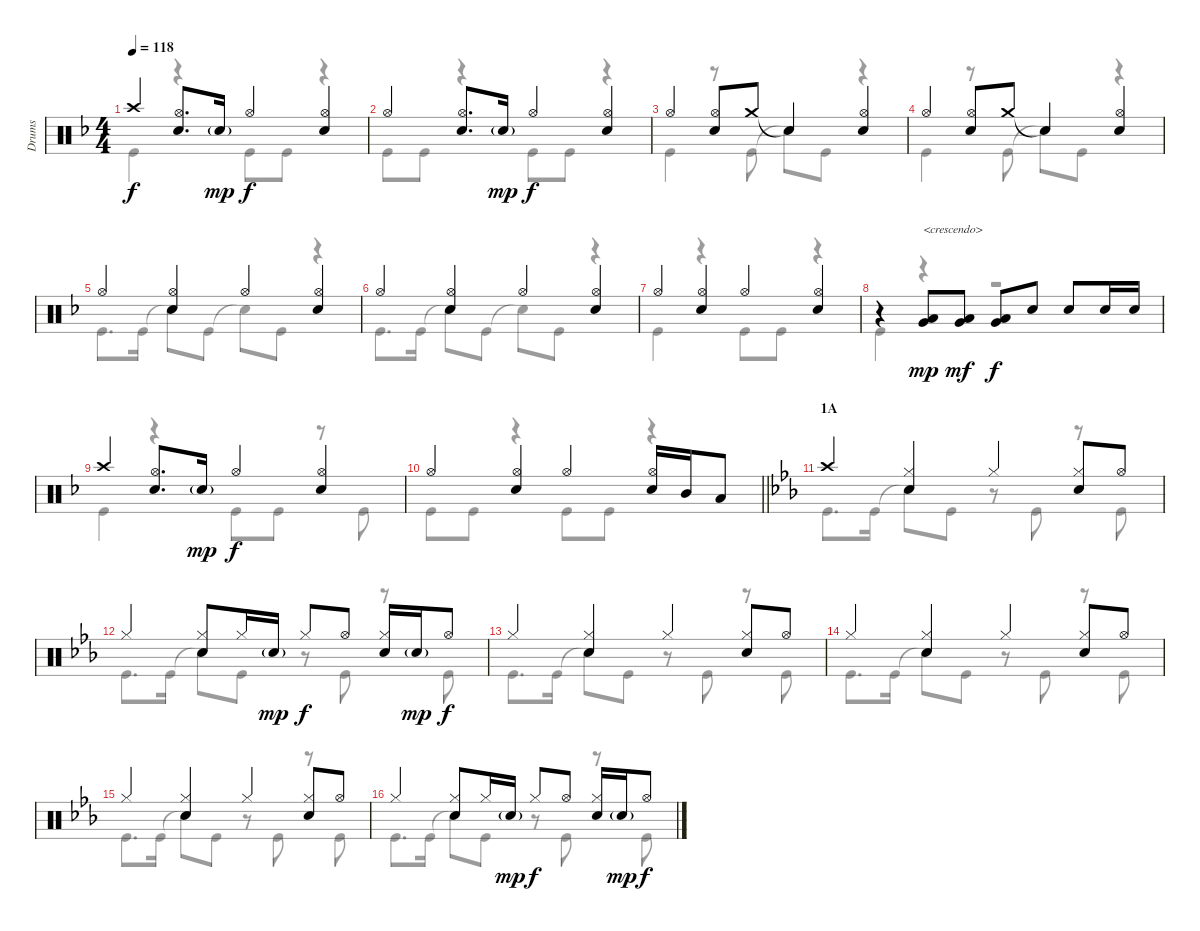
\track ("Drums" "Drums") {instrument percussion}
\staff {score}
\articulation defaults
\voice
\ts (4 4)
\tempo 118
\clef neutral
\ks f "Crash high (hit)".4{dy f}
("Hi-Hat (open)" "Snare (hit) 2").8{d} "Snare (hit) 2"{g}.16{dy mp} "Hi-Hat (open)".4{dy f} ("Hi-Hat (open)" "Snare (hit) 2").4 |
"Hi-Hat (open)".4 ("Hi-Hat (open)" "Snare (hit) 2").8{d} "Snare (hit) 2"{g}.16{dy mp} "Hi-Hat (open)".4{dy f} ("Hi-Hat (open)" "Snare (hit) 2").4 |
"Hi-Hat (open)".4 ("Hi-Hat (open)" "Snare (hit) 2").8 "Crash medium (hit)".8 "Snare (hit)"{t}.4 ("Hi-Hat (open)" "Snare (hit) 2").4 |
"Hi-Hat (open)".4 ("Hi-Hat (open)" "Snare (hit) 2").8 "Crash medium (hit)".8 "Snare (hit)"{t}.4 ("Hi-Hat (open)" "Snare (hit) 2").4 |
"Hi-Hat (open)".4 ("Hi-Hat (open)" "Snare (hit) 2").4 "Hi-Hat (open)".4 ("Hi-Hat (open)" "Snare (hit) 2").4 |
"Hi-Hat (open)".4 ("Hi-Hat (open)" "Snare (hit) 2").4 "Hi-Hat (open)".4 ("Hi-Hat (open)" "Snare (hit) 2").4 |
"Hi-Hat (open)".4 ("Hi-Hat (open)" "Snare (hit) 2").4 "Hi-Hat (open)".4 ("Hi-Hat (open)" "Snare (hit) 2").4 |
r.4 ("Very Low Tom (hit)" "Low Tom (hit)").8{txt "<crescendo>" dy mp} ("Very Low Tom (hit)" "Low Tom (hit)").8{dy mf} ("Very Low Tom (hit)" "Low Tom (hit)").8{dy f} "Snare (hit) 2".8 "Snare (hit) 2".8 "Snare (hit) 2".16 "Snare (hit) 2".16 |
"Crash high (hit)".4 ("Hi-Hat (open)" "Snare (hit) 2").8{d} "Snare (hit) 2"{g}.16{dy mp} "Hi-Hat (open)".4{dy f} ("Hi-Hat (open)" "Snare (hit) 2").4 |
\barLineRight lightlight "Hi-Hat (open)".4
("Hi-Hat (open)" "Snare (hit) 2").4 "Hi-Hat (open)".4 ("Hi-Hat (open)" "Snare (hit) 2").16 "Mid Tom (hit)".16 "Low Tom (hit)".8 |
\section ("" "1A")
\ks eb "Crash high (hit)".4
("Hi-Hat (closed)" "Snare (hit) 2").4 "Hi-Hat (closed)".4 ("Hi-Hat (closed)" "Snare (hit) 2").8 "Hi-Hat (open)".8 |
"Hi-Hat (closed)".4 ("Hi-Hat (closed)" "Snare (hit) 2").8 "Hi-Hat (closed)".16 "Snare (hit) 2"{g}.16{dy mp} "Hi-Hat (closed)".8{dy f} "Hi-Hat (open)".8 ("Hi-Hat (closed)" "Snare (hit) 2").16 "Snare (hit) 2"{g}.16{dy mp} "Hi-Hat (open)".8{dy f} |
"Hi-Hat (closed)".4 ("Hi-Hat (closed)" "Snare (hit) 2").4 "Hi-Hat (closed)".4 ("Hi-Hat (closed)" "Snare (hit) 2").8 "Hi-Hat (open)".8 |
"Hi-Hat (closed)".4 ("Hi-Hat (closed)" "Snare (hit) 2").4 "Hi-Hat (closed)".4 ("Hi-Hat (closed)" "Snare (hit) 2").8 "Hi-Hat (open)".8 |
"Hi-Hat (closed)".4 ("Hi-Hat (closed)" "Snare (hit) 2").4 "Hi-Hat (closed)".4 ("Hi-Hat (closed)" "Snare (hit) 2").8 "Hi-Hat (open)".8 |
"Hi-Hat (closed)".4 ("Hi-Hat (closed)" "Snare (hit) 2").8 "Hi-Hat (closed)".16 "Snare (hit) 2"{g}.16{dy mp} "Hi-Hat (closed)".8{dy f} "Hi-Hat (open)".8 ("Hi-Hat (closed)" "Snare (hit) 2").16 "Snare (hit) 2"{g}.16{dy mp} "Hi-Hat (open)".8{dy f}
\voice
\clef neutral
\ottava regular
\simile none
\ks f "Kick (hit)".4{dy f}
r.4 "Kick (hit)".8 "Kick (hit)".8 r.4 |
"Kick (hit)".8 "Kick (hit)".8 r.4 "Kick (hit)".8 "Kick (hit)".8 r.4 |
"Kick (hit)".4 r.8 "Kick (hit)".8 "Snare (hit)"{t}.8 "Kick (hit)".8 r.4 |
"Kick (hit)".4 r.8 "Kick (hit)".8 "Snare (hit)"{t}.8 "Kick (hit)".8 r.4 |
"Kick (hit)".8{d} "Kick (hit)".16 "Snare (hit)"{t}.8 "Kick (hit)".8 "Snare (hit)"{t}.8 "Kick (hit)".8 r.4 |
"Kick (hit)".8{d} "Kick (hit)".16 "Snare (hit)"{t}.8 "Kick (hit)".8 "Snare (hit)"{t}.8 "Kick (hit)".8 r.4 |
"Kick (hit)".4 r.4 "Kick (hit)".8 "Kick (hit)".8 r.4 |
"Kick (hit)".4 r.4 r.2 |
"Kick (hit)".4 r.4 "Kick (hit)".8 "Kick (hit)".8 r.8 "Kick (hit)".8 |
\barLineRight lightlight "Kick (hit)".8 "Kick (hit)".8
r.4 "Kick (hit)".8 "Kick (hit)".8 r.4 |
\ks eb "Kick (hit)".8{d} "Kick (hit)".16 "Snare (hit)"{t}.8 "Kick (hit)".8
r.8 "Kick (hit)".8 r.8 "Kick (hit)".8 |
"Kick (hit)".8{d} "Kick (hit)".16 "Snare (hit)"{t}.8 "Kick (hit)".8 r.8 "Kick (hit)".8 r.8 "Kick (hit)".8 |
"Kick (hit)".8{d} "Kick (hit)".16 "Snare (hit)"{t}.8 "Kick (hit)".8 r.8 "Kick (hit)".8 r.8 "Kick (hit)".8 |
"Kick (hit)".8{d} "Kick (hit)".16 "Snare (hit)"{t}.8 "Kick (hit)".8 r.8 "Kick (hit)".8 r.8 "Kick (hit)".8 |
"Kick (hit)".8{d} "Kick (hit)".16 "Snare (hit)"{t}.8 "Kick (hit)".8 r.8 "Kick (hit)".8 r.8 "Kick (hit)".8 |
"Kick (hit)".8{d} "Kick (hit)".16 "Snare (hit)"{t}.8 "Kick (hit)".8 r.8 "Kick (hit)".8 r.8 "Kick (hit)".8
